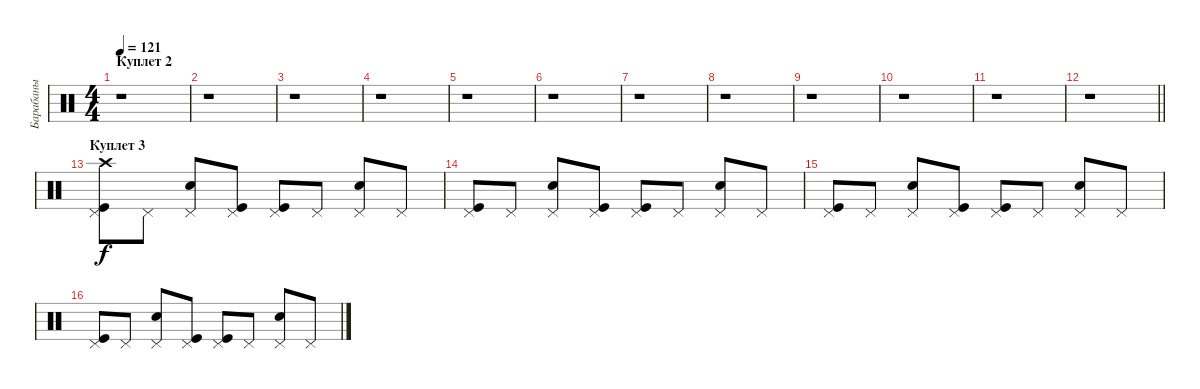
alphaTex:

\track ("Барабаны" "Барабаны") {instrument percussion}
\staff {score}
\articulation defaults
\ts (4 4)
\section ("" "Куплет 2")
\tempo 121
\clef neutral
\ks c
r.1{dy f} |
r.1 |
r.1 |
r.1 |
r.1 |
r.1 |
r.1 |
r.1 |
r.1 |
r.1 |
r.1 |
\barLineRight lightlight
r.1 |
\section ("" "Куплет 3")
("Kick (hit)" "Pedal Hi-Hat (hit)" "Crash high (hit)").8 "Pedal Hi-Hat (hit)".8 ("Snare (hit) 2" "Pedal Hi-Hat (hit)").8 ("Kick (hit)" "Pedal Hi-Hat (hit)").8 ("Kick (hit)" "Pedal Hi-Hat (hit)").8 "Pedal Hi-Hat (hit)".8 ("Snare (hit) 2" "Pedal Hi-Hat (hit)").8 "Pedal Hi-Hat (hit)".8 |
("Kick (hit)" "Pedal Hi-Hat (hit)").8 "Pedal Hi-Hat (hit)".8 ("Snare (hit) 2" "Pedal Hi-Hat (hit)").8 ("Kick (hit)" "Pedal Hi-Hat (hit)").8 ("Kick (hit)" "Pedal Hi-Hat (hit)").8 "Pedal Hi-Hat (hit)".8 ("Snare (hit) 2" "Pedal Hi-Hat (hit)").8 "Pedal Hi-Hat (hit)".8 |
("Kick (hit)" "Pedal Hi-Hat (hit)").8 "Pedal Hi-Hat (hit)".8 ("Snare (hit) 2" "Pedal Hi-Hat (hit)").8 ("Kick (hit)" "Pedal Hi-Hat (hit)").8 ("Kick (hit)" "Pedal Hi-Hat (hit)").8 "Pedal Hi-Hat (hit)".8 ("Snare (hit) 2" "Pedal Hi-Hat (hit)").8 "Pedal Hi-Hat (hit)".8 |
("Kick (hit)" "Pedal Hi-Hat (hit)").8 "Pedal Hi-Hat (hit)".8 ("Snare (hit) 2" "Pedal Hi-Hat (hit)").8 ("Kick (hit)" "Pedal Hi-Hat (hit)").8 ("Kick (hit)" "Pedal Hi-Hat (hit)").8 "Pedal Hi-Hat (hit)".8 ("Snare (hit) 2" "Pedal Hi-Hat (hit)").8 "Pedal Hi-Hat (hit)".8
